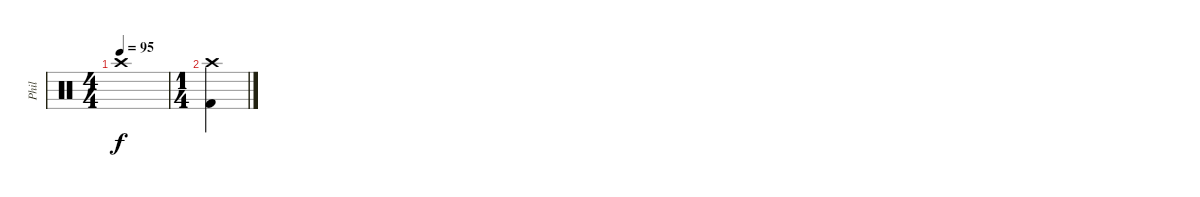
\track ("Phil" "Phil") {instrument percussion}
\staff {score}
\articulation defaults
\ts (4 4)
\tempo 95
\clef neutral
\ks c "Crash high (hit)"{t}.1{dy f}
|
\ts (1 4)
("Crash high (hit)" "Kick (hit) 2").4
